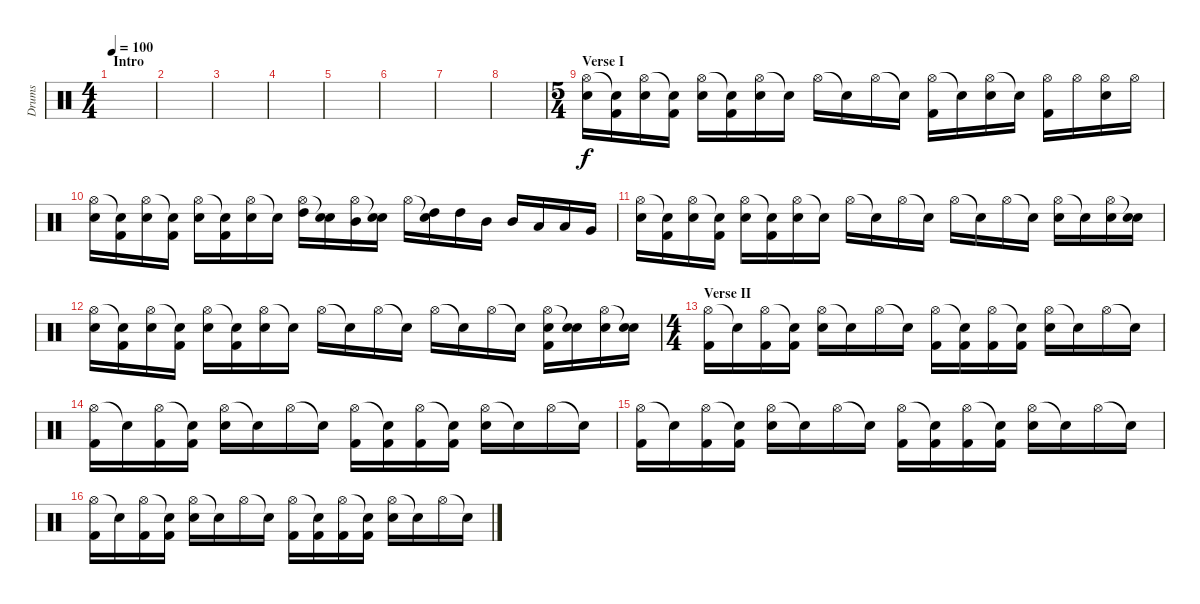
\track ("Drums" "Drums") {instrument percussion}
\staff {score}
\articulation defaults
\ts (4 4)
\section ("" "Intro")
\tempo 100
\clef neutral
\ks c
|
|
|
|
|
|
|
|
\ts (5 4)
\section ("" "Verse I")
("Hi-Hat (open)" "Electric Snare (hit)").16 ("Snare (hit)"{t} "Kick (hit) 2").16 ("Hi-Hat (open)" "Electric Snare (hit)").16 ("Snare (hit)"{t} "Kick (hit) 2").16 ("Hi-Hat (open)" "Electric Snare (hit)").16 ("Snare (hit)"{t} "Kick (hit) 2").16 ("Hi-Hat (open)" "Electric Snare (hit)").16 "Snare (hit)"{t}.16 "Hi-Hat (open)".16 "Snare (hit)"{t}.16 "Hi-Hat (open)".16 "Snare (hit)"{t}.16 ("Hi-Hat (open)" "Kick (hit) 2").16 "Snare (hit)"{t}.16 ("Hi-Hat (open)" "Electric Snare (hit)").16 "Snare (hit)"{t}.16 ("Hi-Hat (open)" "Kick (hit) 2").16 "Hi-Hat (open)".16 ("Hi-Hat (open)" "Electric Snare (hit)").16 "Hi-Hat (open)".16 |
("Hi-Hat (open)" "Electric Snare (hit)").16 ("Snare (hit)"{t} "Kick (hit) 2").16 ("Hi-Hat (open)" "Electric Snare (hit)").16 ("Snare (hit)"{t} "Kick (hit) 2").16 ("Hi-Hat (open)" "Electric Snare (hit)").16 ("Snare (hit)"{t} "Kick (hit) 2").16 ("Hi-Hat (open)" "Electric Snare (hit)").16 "Snare (hit)"{t}.16 ("Hi-Hat (open)" "High Tom (hit)").16 ("Snare (hit)"{t} "Electric Snare (hit)").16 ("Hi-Hat (open)" "Mid Tom (hit)").16 ("Snare (hit)"{t} "Electric Snare (hit)").16 "Hi-Hat (open)".16 ("Snare (hit)"{t} "High Tom (hit)").16 "High Tom (hit)".16 "Mid Tom (hit)".16 "Mid Tom (hit)".16 "Low Tom (hit)".16 "Low Tom (hit)".16 "Very Low Tom (hit)".16 |
("Hi-Hat (open)" "Electric Snare (hit)").16 ("Snare (hit)"{t} "Kick (hit) 2").16 ("Hi-Hat (open)" "Electric Snare (hit)").16 ("Snare (hit)"{t} "Kick (hit) 2").16 ("Hi-Hat (open)" "Electric Snare (hit)").16 ("Snare (hit)"{t} "Kick (hit) 2").16 ("Hi-Hat (open)" "Electric Snare (hit)").16 "Snare (hit)"{t}.16 "Hi-Hat (open)".16 "Snare (hit)"{t}.16 "Hi-Hat (open)".16 "Snare (hit)"{t}.16 "Hi-Hat (open)".16 "Snare (hit)"{t}.16 "Hi-Hat (open)".16 "Snare (hit)"{t}.16 ("Hi-Hat (open)" "Electric Snare (hit)").16 "Snare (hit)"{t}.16 ("Hi-Hat (open)" "Electric Snare (hit)").16 ("Snare (hit)"{t} "Electric Snare (hit)").16 |
("Hi-Hat (open)" "Electric Snare (hit)").16 ("Snare (hit)"{t} "Kick (hit) 2").16 ("Hi-Hat (open)" "Electric Snare (hit)").16 ("Snare (hit)"{t} "Kick (hit) 2").16 ("Hi-Hat (open)" "Electric Snare (hit)").16 ("Snare (hit)"{t} "Kick (hit) 2").16 ("Hi-Hat (open)" "Electric Snare (hit)").16 "Snare (hit)"{t}.16 "Hi-Hat (open)".16 "Snare (hit)"{t}.16 "Hi-Hat (open)".16 "Snare (hit)"{t}.16 "Hi-Hat (open)".16 "Snare (hit)"{t}.16 "Hi-Hat (open)".16 "Snare (hit)"{t}.16 ("Hi-Hat (open)" "Electric Snare (hit)" "Kick (hit) 2").16 ("Snare (hit)"{t} "Electric Snare (hit)").16 ("Hi-Hat (open)" "Electric Snare (hit)").16 ("Snare (hit)"{t} "Electric Snare (hit)").16 |
\ts (4 4)
\section ("" "Verse II")
("Hi-Hat (open)" "Kick (hit) 2").16 "Snare (hit)"{t}.16 ("Hi-Hat (open)" "Kick (hit) 2").16 ("Snare (hit)"{t} "Kick (hit) 2").16 ("Hi-Hat (open)" "Electric Snare (hit)").16 "Snare (hit)"{t}.16 "Hi-Hat (open)".16 "Snare (hit)"{t}.16 ("Hi-Hat (open)" "Kick (hit) 2").16 ("Snare (hit)"{t} "Kick (hit) 2").16 ("Hi-Hat (open)" "Kick (hit) 2").16 ("Snare (hit)"{t} "Kick (hit) 2").16 ("Hi-Hat (open)" "Electric Snare (hit)").16 "Snare (hit)"{t}.16 "Hi-Hat (open)".16 "Snare (hit)"{t}.16 |
("Hi-Hat (open)" "Kick (hit) 2").16 "Snare (hit)"{t}.16 ("Hi-Hat (open)" "Kick (hit) 2").16 ("Snare (hit)"{t} "Kick (hit) 2").16 ("Hi-Hat (open)" "Electric Snare (hit)").16 "Snare (hit)"{t}.16 "Hi-Hat (open)".16 "Snare (hit)"{t}.16 ("Hi-Hat (open)" "Kick (hit) 2").16 ("Snare (hit)"{t} "Kick (hit) 2").16 ("Hi-Hat (open)" "Kick (hit) 2").16 ("Snare (hit)"{t} "Kick (hit) 2").16 ("Hi-Hat (open)" "Electric Snare (hit)").16 "Snare (hit)"{t}.16 "Hi-Hat (open)".16 "Snare (hit)"{t}.16 |
("Hi-Hat (open)" "Kick (hit) 2").16 "Snare (hit)"{t}.16 ("Hi-Hat (open)" "Kick (hit) 2").16 ("Snare (hit)"{t} "Kick (hit) 2").16 ("Hi-Hat (open)" "Electric Snare (hit)").16 "Snare (hit)"{t}.16 "Hi-Hat (open)".16 "Snare (hit)"{t}.16 ("Hi-Hat (open)" "Kick (hit) 2").16 ("Snare (hit)"{t} "Kick (hit) 2").16 ("Hi-Hat (open)" "Kick (hit) 2").16 ("Snare (hit)"{t} "Kick (hit) 2").16 ("Hi-Hat (open)" "Electric Snare (hit)").16 "Snare (hit)"{t}.16 "Hi-Hat (open)".16 "Snare (hit)"{t}.16 |
("Hi-Hat (open)" "Kick (hit) 2").16 "Snare (hit)"{t}.16 ("Hi-Hat (open)" "Kick (hit) 2").16 ("Snare (hit)"{t} "Kick (hit) 2").16 ("Hi-Hat (open)" "Electric Snare (hit)").16 "Snare (hit)"{t}.16 "Hi-Hat (open)".16 "Snare (hit)"{t}.16 ("Hi-Hat (open)" "Kick (hit) 2").16 ("Snare (hit)"{t} "Kick (hit) 2").16 ("Hi-Hat (open)" "Kick (hit) 2").16 ("Snare (hit)"{t} "Kick (hit) 2").16 ("Hi-Hat (open)" "Electric Snare (hit)").16 "Snare (hit)"{t}.16 "Hi-Hat (open)".16 "Snare (hit)"{t}.16
